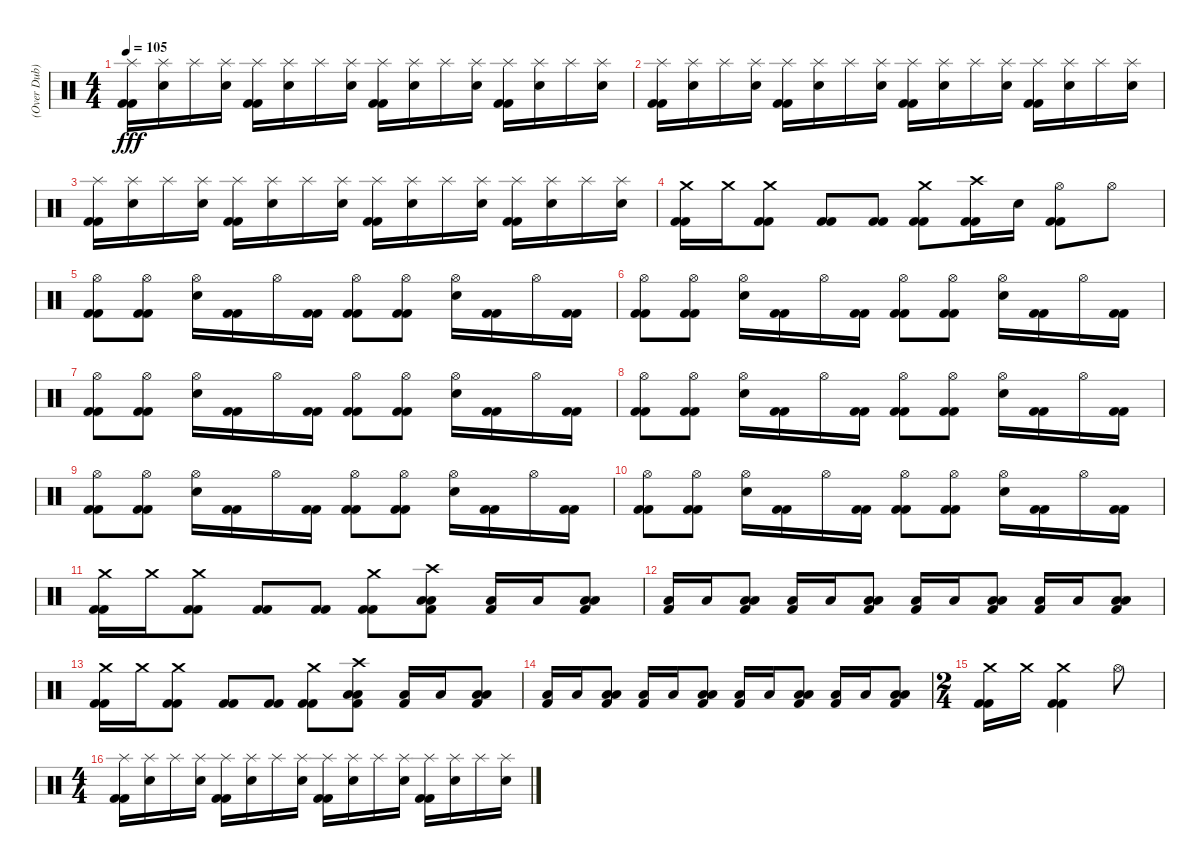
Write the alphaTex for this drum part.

\track ("(Over Dub)" "(Over Dub)") {instrument percussion}
\staff {score}
\articulation defaults
\ts (4 4)
\tempo 105
\clef neutral
\ks c
("Splash (hit)" "Kick (hit) 2" "Kick (hit) 2").16{dy fff} ("Splash (hit)" "Electric Snare (hit)").16 "Splash (hit)".16 ("Splash (hit)" "Electric Snare (hit)").16 ("Splash (hit)" "Kick (hit) 2" "Kick (hit) 2").16 ("Splash (hit)" "Electric Snare (hit)").16 "Splash (hit)".16 ("Splash (hit)" "Electric Snare (hit)").16 ("Splash (hit)" "Kick (hit) 2" "Kick (hit) 2").16 ("Splash (hit)" "Electric Snare (hit)").16 "Splash (hit)".16 ("Splash (hit)" "Electric Snare (hit)").16 ("Splash (hit)" "Kick (hit) 2" "Kick (hit) 2").16 ("Splash (hit)" "Electric Snare (hit)").16 "Splash (hit)".16 ("Splash (hit)" "Electric Snare (hit)").16 |
("Splash (hit)" "Kick (hit) 2" "Kick (hit) 2").16 ("Splash (hit)" "Electric Snare (hit)").16 "Splash (hit)".16 ("Splash (hit)" "Electric Snare (hit)").16 ("Splash (hit)" "Kick (hit) 2" "Kick (hit) 2").16 ("Splash (hit)" "Electric Snare (hit)").16 "Splash (hit)".16 ("Splash (hit)" "Electric Snare (hit)").16 ("Splash (hit)" "Kick (hit) 2" "Kick (hit) 2").16 ("Splash (hit)" "Electric Snare (hit)").16 "Splash (hit)".16 ("Splash (hit)" "Electric Snare (hit)").16 ("Splash (hit)" "Kick (hit) 2" "Kick (hit) 2").16 ("Splash (hit)" "Electric Snare (hit)").16 "Splash (hit)".16 ("Splash (hit)" "Electric Snare (hit)").16 |
("Splash (hit)" "Kick (hit) 2" "Kick (hit) 2").16 ("Splash (hit)" "Electric Snare (hit)").16 "Splash (hit)".16 ("Splash (hit)" "Electric Snare (hit)").16 ("Splash (hit)" "Kick (hit) 2" "Kick (hit) 2").16 ("Splash (hit)" "Electric Snare (hit)").16 "Splash (hit)".16 ("Splash (hit)" "Electric Snare (hit)").16 ("Splash (hit)" "Kick (hit) 2" "Kick (hit) 2").16 ("Splash (hit)" "Electric Snare (hit)").16 "Splash (hit)".16 ("Splash (hit)" "Electric Snare (hit)").16 ("Splash (hit)" "Kick (hit) 2" "Kick (hit) 2").16 ("Splash (hit)" "Electric Snare (hit)").16 "Splash (hit)".16 ("Splash (hit)" "Electric Snare (hit)").16 |
("Crash medium (hit)" "Kick (hit) 2" "Kick (hit) 2").16 "Crash medium (hit)".16 ("Crash medium (hit)" "Kick (hit) 2" "Kick (hit) 2").8 ("Kick (hit) 2" "Kick (hit) 2").8 ("Kick (hit) 2" "Kick (hit) 2").8 ("Crash medium (hit)" "Kick (hit) 2" "Kick (hit) 2").8 ("Crash high (hit)" "Kick (hit) 2" "Kick (hit) 2").16 "Electric Snare (hit)".16 ("Hi-Hat (open)" "Kick (hit) 2" "Kick (hit) 2").8 "Hi-Hat (open)".8 |
("Hi-Hat (open)" "Kick (hit) 2" "Kick (hit) 2").8 ("Hi-Hat (open)" "Kick (hit) 2" "Kick (hit) 2").8 ("Hi-Hat (open)" "Electric Snare (hit)").16 ("Kick (hit) 2" "Kick (hit) 2").16 "Hi-Hat (open)".16 ("Kick (hit) 2" "Kick (hit) 2").16 ("Hi-Hat (open)" "Kick (hit) 2" "Kick (hit) 2").8 ("Hi-Hat (open)" "Kick (hit) 2" "Kick (hit) 2").8 ("Hi-Hat (open)" "Electric Snare (hit)").16 ("Kick (hit) 2" "Kick (hit) 2").16 "Hi-Hat (open)".16 ("Kick (hit) 2" "Kick (hit) 2").16 |
("Hi-Hat (open)" "Kick (hit) 2" "Kick (hit) 2").8 ("Hi-Hat (open)" "Kick (hit) 2" "Kick (hit) 2").8 ("Hi-Hat (open)" "Electric Snare (hit)").16 ("Kick (hit) 2" "Kick (hit) 2").16 "Hi-Hat (open)".16 ("Kick (hit) 2" "Kick (hit) 2").16 ("Hi-Hat (open)" "Kick (hit) 2" "Kick (hit) 2").8 ("Hi-Hat (open)" "Kick (hit) 2" "Kick (hit) 2").8 ("Hi-Hat (open)" "Electric Snare (hit)").16 ("Kick (hit) 2" "Kick (hit) 2").16 "Hi-Hat (open)".16 ("Kick (hit) 2" "Kick (hit) 2").16 |
("Hi-Hat (open)" "Kick (hit) 2" "Kick (hit) 2").8 ("Hi-Hat (open)" "Kick (hit) 2" "Kick (hit) 2").8 ("Hi-Hat (open)" "Electric Snare (hit)").16 ("Kick (hit) 2" "Kick (hit) 2").16 "Hi-Hat (open)".16 ("Kick (hit) 2" "Kick (hit) 2").16 ("Hi-Hat (open)" "Kick (hit) 2" "Kick (hit) 2").8 ("Hi-Hat (open)" "Kick (hit) 2" "Kick (hit) 2").8 ("Hi-Hat (open)" "Electric Snare (hit)").16 ("Kick (hit) 2" "Kick (hit) 2").16 "Hi-Hat (open)".16 ("Kick (hit) 2" "Kick (hit) 2").16 |
("Hi-Hat (open)" "Kick (hit) 2" "Kick (hit) 2").8 ("Hi-Hat (open)" "Kick (hit) 2" "Kick (hit) 2").8 ("Hi-Hat (open)" "Electric Snare (hit)").16 ("Kick (hit) 2" "Kick (hit) 2").16 "Hi-Hat (open)".16 ("Kick (hit) 2" "Kick (hit) 2").16 ("Hi-Hat (open)" "Kick (hit) 2" "Kick (hit) 2").8 ("Hi-Hat (open)" "Kick (hit) 2" "Kick (hit) 2").8 ("Hi-Hat (open)" "Electric Snare (hit)").16 ("Kick (hit) 2" "Kick (hit) 2").16 "Hi-Hat (open)".16 ("Kick (hit) 2" "Kick (hit) 2").16 |
("Hi-Hat (open)" "Kick (hit) 2" "Kick (hit) 2").8 ("Hi-Hat (open)" "Kick (hit) 2" "Kick (hit) 2").8 ("Hi-Hat (open)" "Electric Snare (hit)").16 ("Kick (hit) 2" "Kick (hit) 2").16 "Hi-Hat (open)".16 ("Kick (hit) 2" "Kick (hit) 2").16 ("Hi-Hat (open)" "Kick (hit) 2" "Kick (hit) 2").8 ("Hi-Hat (open)" "Kick (hit) 2" "Kick (hit) 2").8 ("Hi-Hat (open)" "Electric Snare (hit)").16 ("Kick (hit) 2" "Kick (hit) 2").16 "Hi-Hat (open)".16 ("Kick (hit) 2" "Kick (hit) 2").16 |
("Hi-Hat (open)" "Kick (hit) 2" "Kick (hit) 2").8 ("Hi-Hat (open)" "Kick (hit) 2" "Kick (hit) 2").8 ("Hi-Hat (open)" "Electric Snare (hit)").16 ("Kick (hit) 2" "Kick (hit) 2").16 "Hi-Hat (open)".16 ("Kick (hit) 2" "Kick (hit) 2").16 ("Hi-Hat (open)" "Kick (hit) 2" "Kick (hit) 2").8 ("Hi-Hat (open)" "Kick (hit) 2" "Kick (hit) 2").8 ("Hi-Hat (open)" "Electric Snare (hit)").16 ("Kick (hit) 2" "Kick (hit) 2").16 "Hi-Hat (open)".16 ("Kick (hit) 2" "Kick (hit) 2").16 |
("Crash medium (hit)" "Kick (hit) 2" "Kick (hit) 2").16 "Crash medium (hit)".16 ("Crash medium (hit)" "Kick (hit) 2" "Kick (hit) 2").8 ("Kick (hit) 2" "Kick (hit) 2").8 ("Kick (hit) 2" "Kick (hit) 2").8 ("Crash medium (hit)" "Kick (hit) 2" "Kick (hit) 2").8 ("Crash high (hit)" "Low Tom (hit)" "Low Floor Tom (hit)" "Kick (hit) 2").8 ("Low Floor Tom (hit)" "Kick (hit) 2").16 "Low Floor Tom (hit)".16 ("Low Tom (hit)" "Low Floor Tom (hit)" "Kick (hit) 2").8 |
("Low Floor Tom (hit)" "Kick (hit) 2").16 "Low Floor Tom (hit)".16 ("Low Tom (hit)" "Low Floor Tom (hit)" "Kick (hit) 2").8 ("Low Floor Tom (hit)" "Kick (hit) 2").16 "Low Floor Tom (hit)".16 ("Low Tom (hit)" "Low Floor Tom (hit)" "Kick (hit) 2").8 ("Low Floor Tom (hit)" "Kick (hit) 2").16 "Low Floor Tom (hit)".16 ("Low Tom (hit)" "Low Floor Tom (hit)" "Kick (hit) 2").8 ("Low Floor Tom (hit)" "Kick (hit) 2").16 "Low Floor Tom (hit)".16 ("Low Tom (hit)" "Low Floor Tom (hit)" "Kick (hit) 2").8 |
("Crash medium (hit)" "Kick (hit) 2" "Kick (hit) 2").16 "Crash medium (hit)".16 ("Crash medium (hit)" "Kick (hit) 2" "Kick (hit) 2").8 ("Kick (hit) 2" "Kick (hit) 2").8 ("Kick (hit) 2" "Kick (hit) 2").8 ("Crash medium (hit)" "Kick (hit) 2" "Kick (hit) 2").8 ("Crash high (hit)" "Low Tom (hit)" "Low Floor Tom (hit)" "Kick (hit) 2").8 ("Low Floor Tom (hit)" "Kick (hit) 2").16 "Low Floor Tom (hit)".16 ("Low Tom (hit)" "Low Floor Tom (hit)" "Kick (hit) 2").8 |
("Low Floor Tom (hit)" "Kick (hit) 2").16 "Low Floor Tom (hit)".16 ("Low Tom (hit)" "Low Floor Tom (hit)" "Kick (hit) 2").8 ("Low Floor Tom (hit)" "Kick (hit) 2").16 "Low Floor Tom (hit)".16 ("Low Tom (hit)" "Low Floor Tom (hit)" "Kick (hit) 2").8 ("Low Floor Tom (hit)" "Kick (hit) 2").16 "Low Floor Tom (hit)".16 ("Low Tom (hit)" "Low Floor Tom (hit)" "Kick (hit) 2").8 ("Low Floor Tom (hit)" "Kick (hit) 2").16 "Low Floor Tom (hit)".16 ("Low Tom (hit)" "Low Floor Tom (hit)" "Kick (hit) 2").8 |
\ts (2 4)
("Crash medium (hit)" "Kick (hit) 2" "Kick (hit) 2").16 "Crash medium (hit)".16 ("Crash medium (hit)" "Kick (hit) 2" "Kick (hit) 2").4 "Hi-Hat (open)".8 |
\ts (4 4)
("Splash (hit)" "Kick (hit) 2" "Kick (hit) 2").16 ("Splash (hit)" "Electric Snare (hit)").16 "Splash (hit)".16 ("Splash (hit)" "Electric Snare (hit)").16 ("Splash (hit)" "Kick (hit) 2" "Kick (hit) 2").16 ("Splash (hit)" "Electric Snare (hit)").16 "Splash (hit)".16 ("Splash (hit)" "Electric Snare (hit)").16 ("Splash (hit)" "Kick (hit) 2" "Kick (hit) 2").16 ("Splash (hit)" "Electric Snare (hit)").16 "Splash (hit)".16 ("Splash (hit)" "Electric Snare (hit)").16 ("Splash (hit)" "Kick (hit) 2" "Kick (hit) 2").16 ("Splash (hit)" "Electric Snare (hit)").16 "Splash (hit)".16 ("Splash (hit)" "Electric Snare (hit)").16
